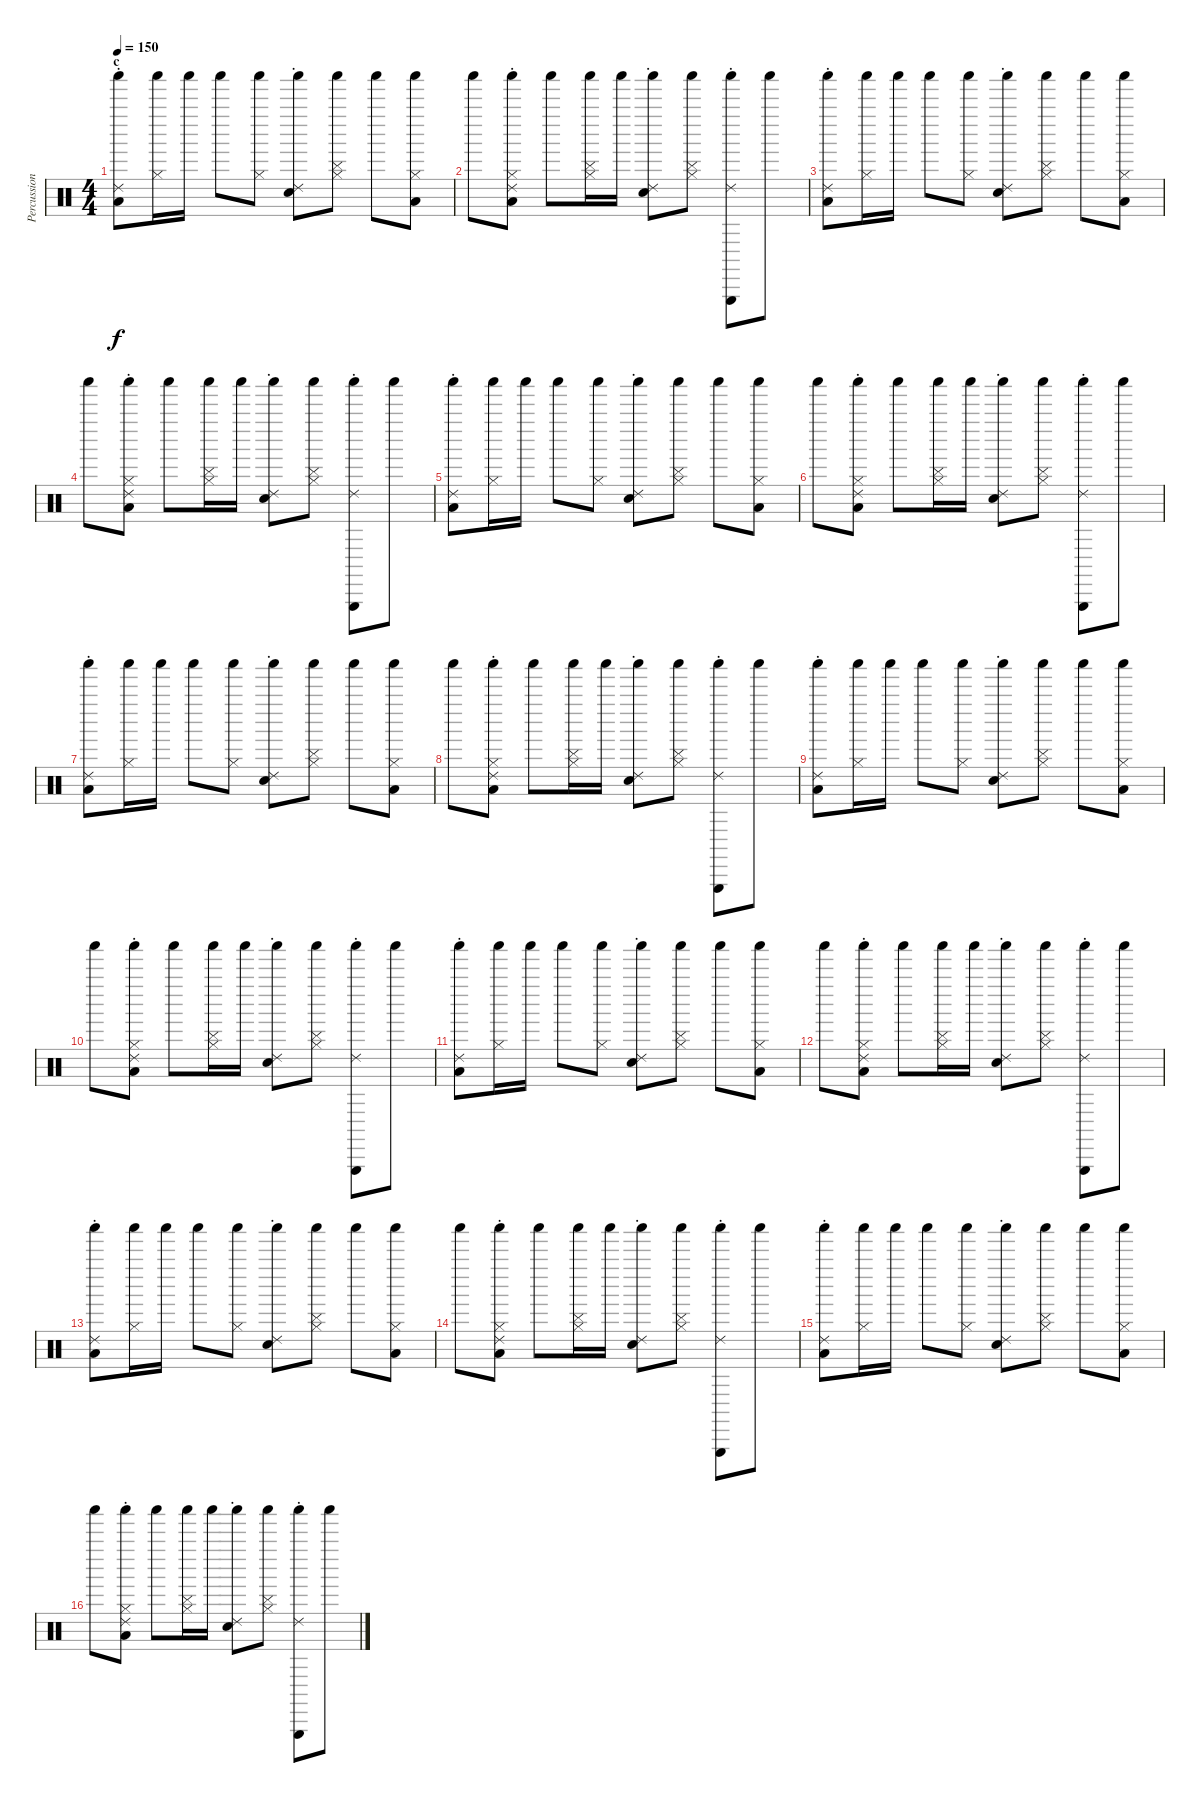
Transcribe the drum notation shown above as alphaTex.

\track ("Percussion" "Percussion") {instrument percussion}
\staff {score}
\articulation defaults
\ts (4 4)
\section ("" "c")
\tempo 150
\clef neutral
\ks c
("Ride (choke) 2" "Shaker (hit)" "Low Floor Tom (hit)").8{dy f} ("Hi-Hat (closed)" "Shaker (hit)").16 "Shaker (hit)".16 "Shaker (hit)".8 ("Hi-Hat (closed)" "Shaker (hit)").8 ("Ride (choke) 2" "Shaker (hit)" "Hand Clap (hit)").8 ("Cymbal (hit)" "Hi-Hat (closed)" "Shaker (hit)").8 "Shaker (hit)".8 ("Hi-Hat (closed)" "Shaker (hit)" "Low Floor Tom (hit)").8 |
"Shaker (hit)".8 ("Ride (choke) 2" "Hi-Hat (closed)" "Shaker (hit)" "Low Floor Tom (hit)").8 "Shaker (hit)".8 ("Cymbal (hit)" "Hi-Hat (closed)" "Shaker (hit)").16 "Shaker (hit)".16 ("Ride (choke) 2" "Shaker (hit)" "Hand Clap (hit)").8 ("Cymbal (hit)" "Hi-Hat (closed)" "Shaker (hit)").8 ("Ride (choke) 2" "Triangle (hit)" "Shaker (hit)").8 "Shaker (hit)".8 |
("Ride (choke) 2" "Shaker (hit)" "Low Floor Tom (hit)").8 ("Hi-Hat (closed)" "Shaker (hit)").16 "Shaker (hit)".16 "Shaker (hit)".8 ("Hi-Hat (closed)" "Shaker (hit)").8 ("Ride (choke) 2" "Shaker (hit)" "Hand Clap (hit)").8 ("Cymbal (hit)" "Hi-Hat (closed)" "Shaker (hit)").8 "Shaker (hit)".8 ("Hi-Hat (closed)" "Shaker (hit)" "Low Floor Tom (hit)").8 |
"Shaker (hit)".8 ("Ride (choke) 2" "Hi-Hat (closed)" "Shaker (hit)" "Low Floor Tom (hit)").8 "Shaker (hit)".8 ("Cymbal (hit)" "Hi-Hat (closed)" "Shaker (hit)").16 "Shaker (hit)".16 ("Ride (choke) 2" "Shaker (hit)" "Hand Clap (hit)").8 ("Cymbal (hit)" "Hi-Hat (closed)" "Shaker (hit)").8 ("Ride (choke) 2" "Triangle (hit)" "Shaker (hit)").8 "Shaker (hit)".8 |
("Ride (choke) 2" "Shaker (hit)" "Low Floor Tom (hit)").8 ("Hi-Hat (closed)" "Shaker (hit)").16 "Shaker (hit)".16 "Shaker (hit)".8 ("Hi-Hat (closed)" "Shaker (hit)").8 ("Ride (choke) 2" "Shaker (hit)" "Hand Clap (hit)").8 ("Cymbal (hit)" "Hi-Hat (closed)" "Shaker (hit)").8 "Shaker (hit)".8 ("Hi-Hat (closed)" "Shaker (hit)" "Low Floor Tom (hit)").8 |
"Shaker (hit)".8 ("Ride (choke) 2" "Hi-Hat (closed)" "Shaker (hit)" "Low Floor Tom (hit)").8 "Shaker (hit)".8 ("Cymbal (hit)" "Hi-Hat (closed)" "Shaker (hit)").16 "Shaker (hit)".16 ("Ride (choke) 2" "Shaker (hit)" "Hand Clap (hit)").8 ("Cymbal (hit)" "Hi-Hat (closed)" "Shaker (hit)").8 ("Ride (choke) 2" "Triangle (hit)" "Shaker (hit)").8 "Shaker (hit)".8 |
("Ride (choke) 2" "Shaker (hit)" "Low Floor Tom (hit)").8 ("Hi-Hat (closed)" "Shaker (hit)").16 "Shaker (hit)".16 "Shaker (hit)".8 ("Hi-Hat (closed)" "Shaker (hit)").8 ("Ride (choke) 2" "Shaker (hit)" "Hand Clap (hit)").8 ("Cymbal (hit)" "Hi-Hat (closed)" "Shaker (hit)").8 "Shaker (hit)".8 ("Hi-Hat (closed)" "Shaker (hit)" "Low Floor Tom (hit)").8 |
"Shaker (hit)".8 ("Ride (choke) 2" "Hi-Hat (closed)" "Shaker (hit)" "Low Floor Tom (hit)").8 "Shaker (hit)".8 ("Cymbal (hit)" "Hi-Hat (closed)" "Shaker (hit)").16 "Shaker (hit)".16 ("Ride (choke) 2" "Shaker (hit)" "Hand Clap (hit)").8 ("Cymbal (hit)" "Hi-Hat (closed)" "Shaker (hit)").8 ("Ride (choke) 2" "Triangle (hit)" "Shaker (hit)").8 "Shaker (hit)".8 |
("Ride (choke) 2" "Shaker (hit)" "Low Floor Tom (hit)").8 ("Hi-Hat (closed)" "Shaker (hit)").16 "Shaker (hit)".16 "Shaker (hit)".8 ("Hi-Hat (closed)" "Shaker (hit)").8 ("Ride (choke) 2" "Shaker (hit)" "Hand Clap (hit)").8 ("Cymbal (hit)" "Hi-Hat (closed)" "Shaker (hit)").8 "Shaker (hit)".8 ("Hi-Hat (closed)" "Shaker (hit)" "Low Floor Tom (hit)").8 |
"Shaker (hit)".8 ("Ride (choke) 2" "Hi-Hat (closed)" "Shaker (hit)" "Low Floor Tom (hit)").8 "Shaker (hit)".8 ("Cymbal (hit)" "Hi-Hat (closed)" "Shaker (hit)").16 "Shaker (hit)".16 ("Ride (choke) 2" "Shaker (hit)" "Hand Clap (hit)").8 ("Cymbal (hit)" "Hi-Hat (closed)" "Shaker (hit)").8 ("Ride (choke) 2" "Triangle (hit)" "Shaker (hit)").8 "Shaker (hit)".8 |
("Ride (choke) 2" "Shaker (hit)" "Low Floor Tom (hit)").8 ("Hi-Hat (closed)" "Shaker (hit)").16 "Shaker (hit)".16 "Shaker (hit)".8 ("Hi-Hat (closed)" "Shaker (hit)").8 ("Ride (choke) 2" "Shaker (hit)" "Hand Clap (hit)").8 ("Cymbal (hit)" "Hi-Hat (closed)" "Shaker (hit)").8 "Shaker (hit)".8 ("Hi-Hat (closed)" "Shaker (hit)" "Low Floor Tom (hit)").8 |
"Shaker (hit)".8 ("Ride (choke) 2" "Hi-Hat (closed)" "Shaker (hit)" "Low Floor Tom (hit)").8 "Shaker (hit)".8 ("Cymbal (hit)" "Hi-Hat (closed)" "Shaker (hit)").16 "Shaker (hit)".16 ("Ride (choke) 2" "Shaker (hit)" "Hand Clap (hit)").8 ("Cymbal (hit)" "Hi-Hat (closed)" "Shaker (hit)").8 ("Ride (choke) 2" "Triangle (hit)" "Shaker (hit)").8 "Shaker (hit)".8 |
("Ride (choke) 2" "Shaker (hit)" "Low Floor Tom (hit)").8 ("Hi-Hat (closed)" "Shaker (hit)").16 "Shaker (hit)".16 "Shaker (hit)".8 ("Hi-Hat (closed)" "Shaker (hit)").8 ("Ride (choke) 2" "Shaker (hit)" "Hand Clap (hit)").8 ("Cymbal (hit)" "Hi-Hat (closed)" "Shaker (hit)").8 "Shaker (hit)".8 ("Hi-Hat (closed)" "Shaker (hit)" "Low Floor Tom (hit)").8 |
"Shaker (hit)".8 ("Ride (choke) 2" "Hi-Hat (closed)" "Shaker (hit)" "Low Floor Tom (hit)").8 "Shaker (hit)".8 ("Cymbal (hit)" "Hi-Hat (closed)" "Shaker (hit)").16 "Shaker (hit)".16 ("Ride (choke) 2" "Shaker (hit)" "Hand Clap (hit)").8 ("Cymbal (hit)" "Hi-Hat (closed)" "Shaker (hit)").8 ("Ride (choke) 2" "Triangle (hit)" "Shaker (hit)").8 "Shaker (hit)".8 |
("Ride (choke) 2" "Shaker (hit)" "Low Floor Tom (hit)").8 ("Hi-Hat (closed)" "Shaker (hit)").16 "Shaker (hit)".16 "Shaker (hit)".8 ("Hi-Hat (closed)" "Shaker (hit)").8 ("Ride (choke) 2" "Shaker (hit)" "Hand Clap (hit)").8 ("Cymbal (hit)" "Hi-Hat (closed)" "Shaker (hit)").8 "Shaker (hit)".8 ("Hi-Hat (closed)" "Shaker (hit)" "Low Floor Tom (hit)").8 |
"Shaker (hit)".8 ("Ride (choke) 2" "Hi-Hat (closed)" "Shaker (hit)" "Low Floor Tom (hit)").8 "Shaker (hit)".8 ("Cymbal (hit)" "Hi-Hat (closed)" "Shaker (hit)").16 "Shaker (hit)".16 ("Ride (choke) 2" "Shaker (hit)" "Hand Clap (hit)").8 ("Cymbal (hit)" "Hi-Hat (closed)" "Shaker (hit)").8 ("Ride (choke) 2" "Triangle (hit)" "Shaker (hit)").8 "Shaker (hit)".8
